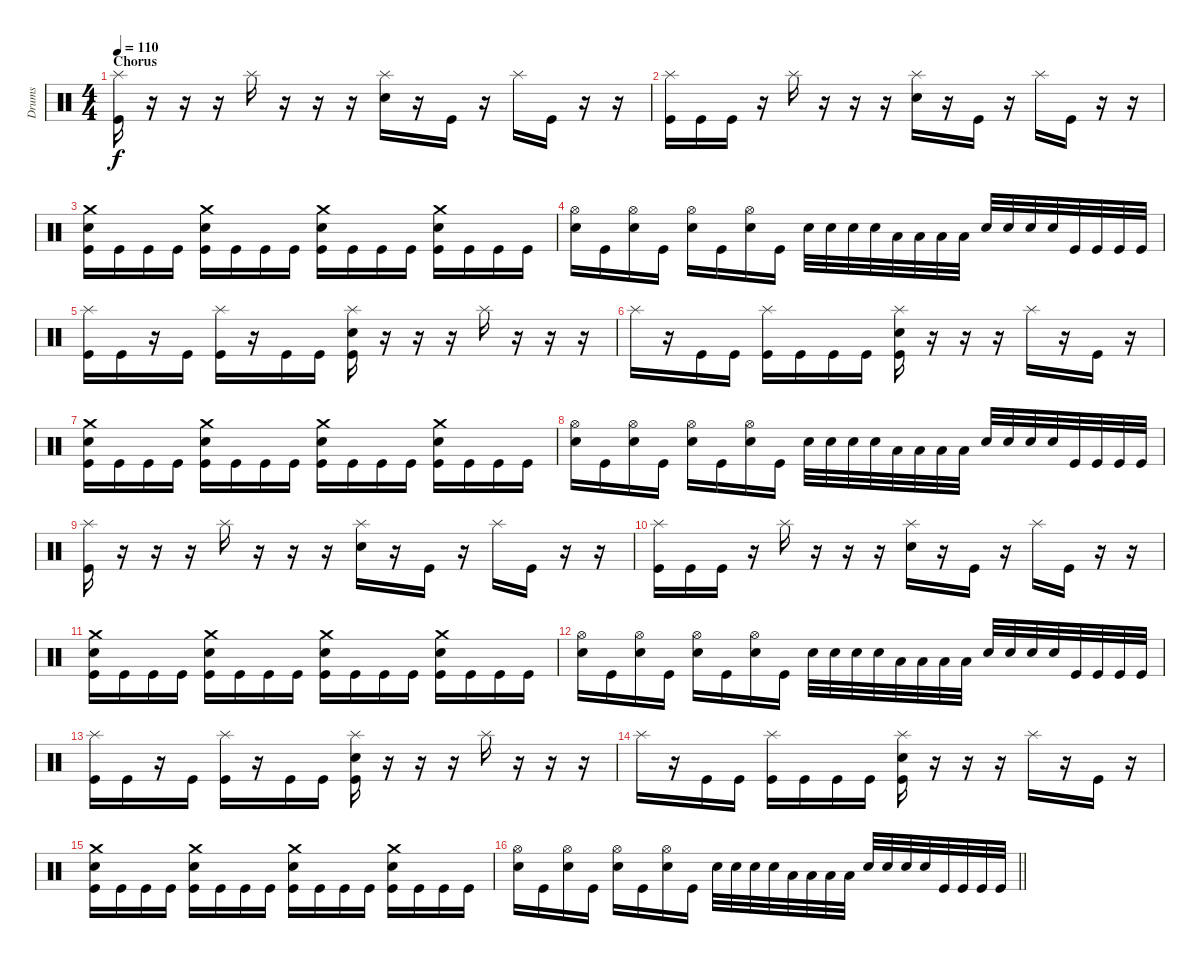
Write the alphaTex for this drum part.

\track ("Drums" "Drums") {instrument percussion}
\staff {score}
\articulation defaults
\ts (4 4)
\section ("" "Chorus")
\tempo 110
\clef neutral
\ks c
("Splash (hit)" "Kick (hit)").16{dy f} r.16 r.16 r.16 "Splash (hit)".16 r.16 r.16 r.16 ("Splash (hit)" "Snare (hit) 2").16 r.16 "Kick (hit)".16 r.16 "Splash (hit)".16 "Kick (hit)".16 r.16 r.16 |
("Kick (hit)" "Splash (hit)").16 "Kick (hit)".16 "Kick (hit)".16 r.16 "Splash (hit)".16 r.16 r.16 r.16 ("Splash (hit)" "Snare (hit) 2").16 r.16 "Kick (hit)".16 r.16 "Splash (hit)".16 "Kick (hit)".16 r.16 r.16 |
("Kick (hit)" "Crash medium (hit)" "Snare (hit) 2").16 "Kick (hit)".16 "Kick (hit)".16 "Kick (hit)".16 ("Kick (hit)" "Crash medium (hit)" "Snare (hit) 2").16 "Kick (hit)".16 "Kick (hit)".16 "Kick (hit)".16 ("Kick (hit)" "Crash medium (hit)" "Snare (hit) 2").16 "Kick (hit)".16 "Kick (hit)".16 "Kick (hit)".16 ("Kick (hit)" "Crash medium (hit)" "Snare (hit) 2").16 "Kick (hit)".16 "Kick (hit)".16 "Kick (hit)".16 |
("Snare (hit) 2" "Hi-Hat (open)").16 "Kick (hit)".16 ("Snare (hit) 2" "Hi-Hat (open)").16 "Kick (hit)".16 ("Snare (hit) 2" "Hi-Hat (open)").16 "Kick (hit)".16 ("Snare (hit) 2" "Hi-Hat (open)").16 "Kick (hit)".16 "Snare (hit) 2".32 "Snare (hit) 2".32 "Snare (hit) 2".32 "Snare (hit) 2".32 "Low Tom (hit)".32 "Low Tom (hit)".32 "Low Floor Tom (hit)".32 "Low Floor Tom (hit)".32 "Snare (hit) 2".32 "Snare (hit) 2".32 "Snare (hit) 2".32 "Snare (hit) 2".32 "Kick (hit)".32 "Kick (hit)".32 "Kick (hit)".32 "Kick (hit)".32 |
("Kick (hit)" "Splash (hit)").16 "Kick (hit)".16 r.16 "Kick (hit)".16 ("Kick (hit)" "Splash (hit)").16 r.16 "Kick (hit)".16 "Kick (hit)".16 ("Kick (hit)" "Splash (hit)" "Snare (hit) 2").16 r.16 r.16 r.16 "Splash (hit)".16 r.16 r.16 r.16 |
"Splash (hit)".16 r.16 "Kick (hit)".16 "Kick (hit)".16 ("Kick (hit)" "Splash (hit)").16 "Kick (hit)".16 "Kick (hit)".16 "Kick (hit)".16 ("Kick (hit)" "Splash (hit)" "Snare (hit) 2").16 r.16 r.16 r.16 "Splash (hit)".16 r.16 "Kick (hit)".16 r.16 |
("Kick (hit)" "Crash medium (hit)" "Snare (hit) 2").16 "Kick (hit)".16 "Kick (hit)".16 "Kick (hit)".16 ("Kick (hit)" "Crash medium (hit)" "Snare (hit) 2").16 "Kick (hit)".16 "Kick (hit)".16 "Kick (hit)".16 ("Kick (hit)" "Crash medium (hit)" "Snare (hit) 2").16 "Kick (hit)".16 "Kick (hit)".16 "Kick (hit)".16 ("Kick (hit)" "Crash medium (hit)" "Snare (hit) 2").16 "Kick (hit)".16 "Kick (hit)".16 "Kick (hit)".16 |
("Snare (hit) 2" "Hi-Hat (open)").16 "Kick (hit)".16 ("Snare (hit) 2" "Hi-Hat (open)").16 "Kick (hit)".16 ("Snare (hit) 2" "Hi-Hat (open)").16 "Kick (hit)".16 ("Snare (hit) 2" "Hi-Hat (open)").16 "Kick (hit)".16 "Snare (hit) 2".32 "Snare (hit) 2".32 "Snare (hit) 2".32 "Snare (hit) 2".32 "Low Tom (hit)".32 "Low Tom (hit)".32 "Low Floor Tom (hit)".32 "Low Floor Tom (hit)".32 "Snare (hit) 2".32 "Snare (hit) 2".32 "Snare (hit) 2".32 "Snare (hit) 2".32 "Kick (hit)".32 "Kick (hit)".32 "Kick (hit)".32 "Kick (hit)".32 |
("Splash (hit)" "Kick (hit)").16 r.16 r.16 r.16 "Splash (hit)".16 r.16 r.16 r.16 ("Splash (hit)" "Snare (hit) 2").16 r.16 "Kick (hit)".16 r.16 "Splash (hit)".16 "Kick (hit)".16 r.16 r.16 |
("Kick (hit)" "Splash (hit)").16 "Kick (hit)".16 "Kick (hit)".16 r.16 "Splash (hit)".16 r.16 r.16 r.16 ("Splash (hit)" "Snare (hit) 2").16 r.16 "Kick (hit)".16 r.16 "Splash (hit)".16 "Kick (hit)".16 r.16 r.16 |
("Kick (hit)" "Crash medium (hit)" "Snare (hit) 2").16 "Kick (hit)".16 "Kick (hit)".16 "Kick (hit)".16 ("Kick (hit)" "Crash medium (hit)" "Snare (hit) 2").16 "Kick (hit)".16 "Kick (hit)".16 "Kick (hit)".16 ("Kick (hit)" "Crash medium (hit)" "Snare (hit) 2").16 "Kick (hit)".16 "Kick (hit)".16 "Kick (hit)".16 ("Kick (hit)" "Crash medium (hit)" "Snare (hit) 2").16 "Kick (hit)".16 "Kick (hit)".16 "Kick (hit)".16 |
("Snare (hit) 2" "Hi-Hat (open)").16 "Kick (hit)".16 ("Snare (hit) 2" "Hi-Hat (open)").16 "Kick (hit)".16 ("Snare (hit) 2" "Hi-Hat (open)").16 "Kick (hit)".16 ("Snare (hit) 2" "Hi-Hat (open)").16 "Kick (hit)".16 "Snare (hit) 2".32 "Snare (hit) 2".32 "Snare (hit) 2".32 "Snare (hit) 2".32 "Low Tom (hit)".32 "Low Tom (hit)".32 "Low Floor Tom (hit)".32 "Low Floor Tom (hit)".32 "Snare (hit) 2".32 "Snare (hit) 2".32 "Snare (hit) 2".32 "Snare (hit) 2".32 "Kick (hit)".32 "Kick (hit)".32 "Kick (hit)".32 "Kick (hit)".32 |
("Kick (hit)" "Splash (hit)").16 "Kick (hit)".16 r.16 "Kick (hit)".16 ("Kick (hit)" "Splash (hit)").16 r.16 "Kick (hit)".16 "Kick (hit)".16 ("Kick (hit)" "Splash (hit)" "Snare (hit) 2").16 r.16 r.16 r.16 "Splash (hit)".16 r.16 r.16 r.16 |
"Splash (hit)".16 r.16 "Kick (hit)".16 "Kick (hit)".16 ("Kick (hit)" "Splash (hit)").16 "Kick (hit)".16 "Kick (hit)".16 "Kick (hit)".16 ("Kick (hit)" "Splash (hit)" "Snare (hit) 2").16 r.16 r.16 r.16 "Splash (hit)".16 r.16 "Kick (hit)".16 r.16 |
("Kick (hit)" "Crash medium (hit)" "Snare (hit) 2").16 "Kick (hit)".16 "Kick (hit)".16 "Kick (hit)".16 ("Kick (hit)" "Crash medium (hit)" "Snare (hit) 2").16 "Kick (hit)".16 "Kick (hit)".16 "Kick (hit)".16 ("Kick (hit)" "Crash medium (hit)" "Snare (hit) 2").16 "Kick (hit)".16 "Kick (hit)".16 "Kick (hit)".16 ("Kick (hit)" "Crash medium (hit)" "Snare (hit) 2").16 "Kick (hit)".16 "Kick (hit)".16 "Kick (hit)".16 |
\barLineRight lightlight
("Snare (hit) 2" "Hi-Hat (open)").16 "Kick (hit)".16 ("Snare (hit) 2" "Hi-Hat (open)").16 "Kick (hit)".16 ("Snare (hit) 2" "Hi-Hat (open)").16 "Kick (hit)".16 ("Snare (hit) 2" "Hi-Hat (open)").16 "Kick (hit)".16 "Snare (hit) 2".32 "Snare (hit) 2".32 "Snare (hit) 2".32 "Snare (hit) 2".32 "Low Tom (hit)".32 "Low Tom (hit)".32 "Low Floor Tom (hit)".32 "Low Floor Tom (hit)".32 "Snare (hit) 2".32 "Snare (hit) 2".32 "Snare (hit) 2".32 "Snare (hit) 2".32 "Kick (hit)".32 "Kick (hit)".32 "Kick (hit)".32 "Kick (hit)".32
